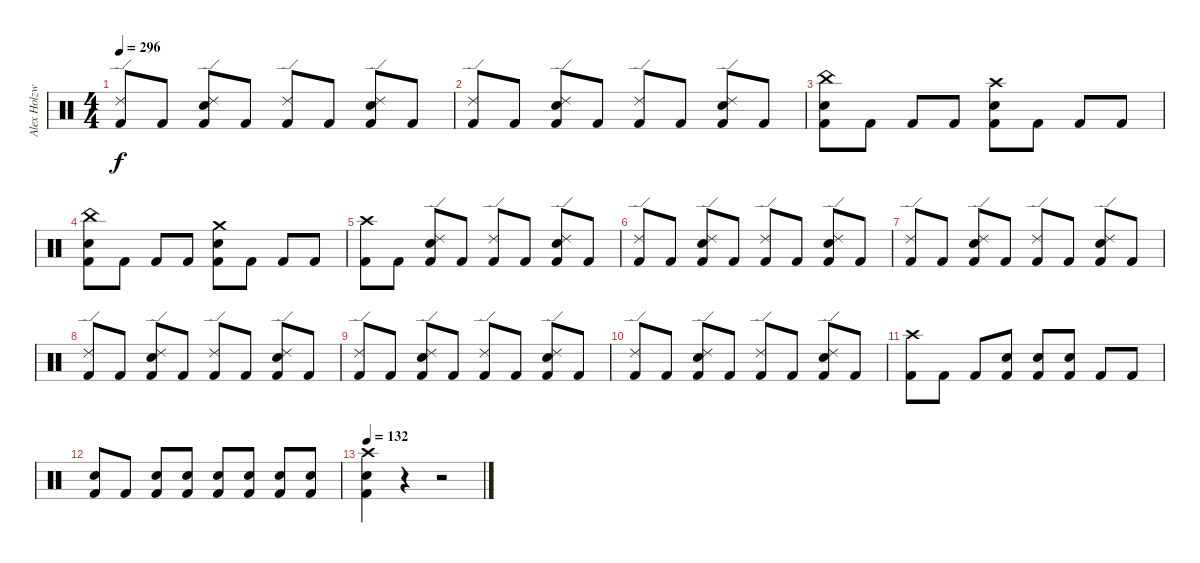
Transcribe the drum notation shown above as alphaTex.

\track ("Alex Holzwarth" "Alex Holzw") {instrument percussion}
\staff {score}
\articulation defaults
\ts (4 4)
\tempo 296
\clef neutral
\ks c
("Ride (edge) 2" "Kick (hit) 2").8{dy f} "Kick (hit) 2".8 ("Ride (edge) 2" "Snare (hit) 2" "Kick (hit) 2").8 "Kick (hit) 2".8 ("Ride (edge) 2" "Kick (hit) 2").8 "Kick (hit) 2".8 ("Ride (edge) 2" "Snare (hit) 2" "Kick (hit) 2").8 "Kick (hit) 2".8 |
("Ride (edge) 2" "Kick (hit) 2").8 "Kick (hit) 2".8 ("Ride (edge) 2" "Snare (hit) 2" "Kick (hit) 2").8 "Kick (hit) 2".8 ("Ride (edge) 2" "Kick (hit) 2").8 "Kick (hit) 2".8 ("Ride (edge) 2" "Snare (hit) 2" "Kick (hit) 2").8 "Kick (hit) 2".8 |
("China (hit)" "Snare (hit) 2" "Kick (hit) 2").8 "Kick (hit) 2".8 "Kick (hit) 2".8 "Kick (hit) 2".8 ("Crash high (hit)" "Snare (hit) 2" "Kick (hit) 2").8 "Kick (hit) 2".8 "Kick (hit) 2".8 "Kick (hit) 2".8 |
("China (hit)" "Snare (hit) 2" "Kick (hit) 2").8 "Kick (hit) 2".8 "Kick (hit) 2".8 "Kick (hit) 2".8 ("Crash medium (hit)" "Snare (hit) 2" "Kick (hit) 2").8 "Kick (hit) 2".8 "Kick (hit) 2".8 "Kick (hit) 2".8 |
("Crash high (hit)" "Kick (hit) 2").8 "Kick (hit) 2".8 ("Ride (edge) 2" "Snare (hit) 2" "Kick (hit) 2").8 "Kick (hit) 2".8 ("Ride (edge) 2" "Kick (hit) 2").8 "Kick (hit) 2".8 ("Ride (edge) 2" "Snare (hit) 2" "Kick (hit) 2").8 "Kick (hit) 2".8 |
("Ride (edge) 2" "Kick (hit) 2").8 "Kick (hit) 2".8 ("Ride (edge) 2" "Snare (hit) 2" "Kick (hit) 2").8 "Kick (hit) 2".8 ("Ride (edge) 2" "Kick (hit) 2").8 "Kick (hit) 2".8 ("Ride (edge) 2" "Snare (hit) 2" "Kick (hit) 2").8 "Kick (hit) 2".8 |
("Ride (edge) 2" "Kick (hit) 2").8 "Kick (hit) 2".8 ("Ride (edge) 2" "Snare (hit) 2" "Kick (hit) 2").8 "Kick (hit) 2".8 ("Ride (edge) 2" "Kick (hit) 2").8 "Kick (hit) 2".8 ("Ride (edge) 2" "Snare (hit) 2" "Kick (hit) 2").8 "Kick (hit) 2".8 |
("Ride (edge) 2" "Kick (hit) 2").8 "Kick (hit) 2".8 ("Ride (edge) 2" "Snare (hit) 2" "Kick (hit) 2").8 "Kick (hit) 2".8 ("Ride (edge) 2" "Kick (hit) 2").8 "Kick (hit) 2".8 ("Ride (edge) 2" "Snare (hit) 2" "Kick (hit) 2").8 "Kick (hit) 2".8 |
("Ride (edge) 2" "Kick (hit) 2").8 "Kick (hit) 2".8 ("Ride (edge) 2" "Snare (hit) 2" "Kick (hit) 2").8 "Kick (hit) 2".8 ("Ride (edge) 2" "Kick (hit) 2").8 "Kick (hit) 2".8 ("Ride (edge) 2" "Snare (hit) 2" "Kick (hit) 2").8 "Kick (hit) 2".8 |
("Ride (edge) 2" "Kick (hit) 2").8 "Kick (hit) 2".8 ("Ride (edge) 2" "Snare (hit) 2" "Kick (hit) 2").8 "Kick (hit) 2".8 ("Ride (edge) 2" "Kick (hit) 2").8 "Kick (hit) 2".8 ("Ride (edge) 2" "Snare (hit) 2" "Kick (hit) 2").8 "Kick (hit) 2".8 |
("Crash high (hit)" "Kick (hit) 2").8 "Kick (hit) 2".8 "Kick (hit) 2".8 ("Snare (hit) 2" "Kick (hit) 2").8 ("Snare (hit) 2" "Kick (hit) 2").8 ("Snare (hit) 2" "Kick (hit) 2").8 "Kick (hit) 2".8 "Kick (hit) 2".8 |
("Snare (hit) 2" "Kick (hit) 2").8 "Kick (hit) 2".8 ("Snare (hit) 2" "Kick (hit) 2").8 ("Snare (hit) 2" "Kick (hit) 2").8 ("Snare (hit) 2" "Kick (hit) 2").8 ("Snare (hit) 2" "Kick (hit) 2").8 ("Snare (hit) 2" "Kick (hit) 2").8 ("Snare (hit) 2" "Kick (hit) 2").8 |
\tempo 132
("Crash high (hit)" "Snare (hit) 2" "Kick (hit) 2").4 r.4 r.2
